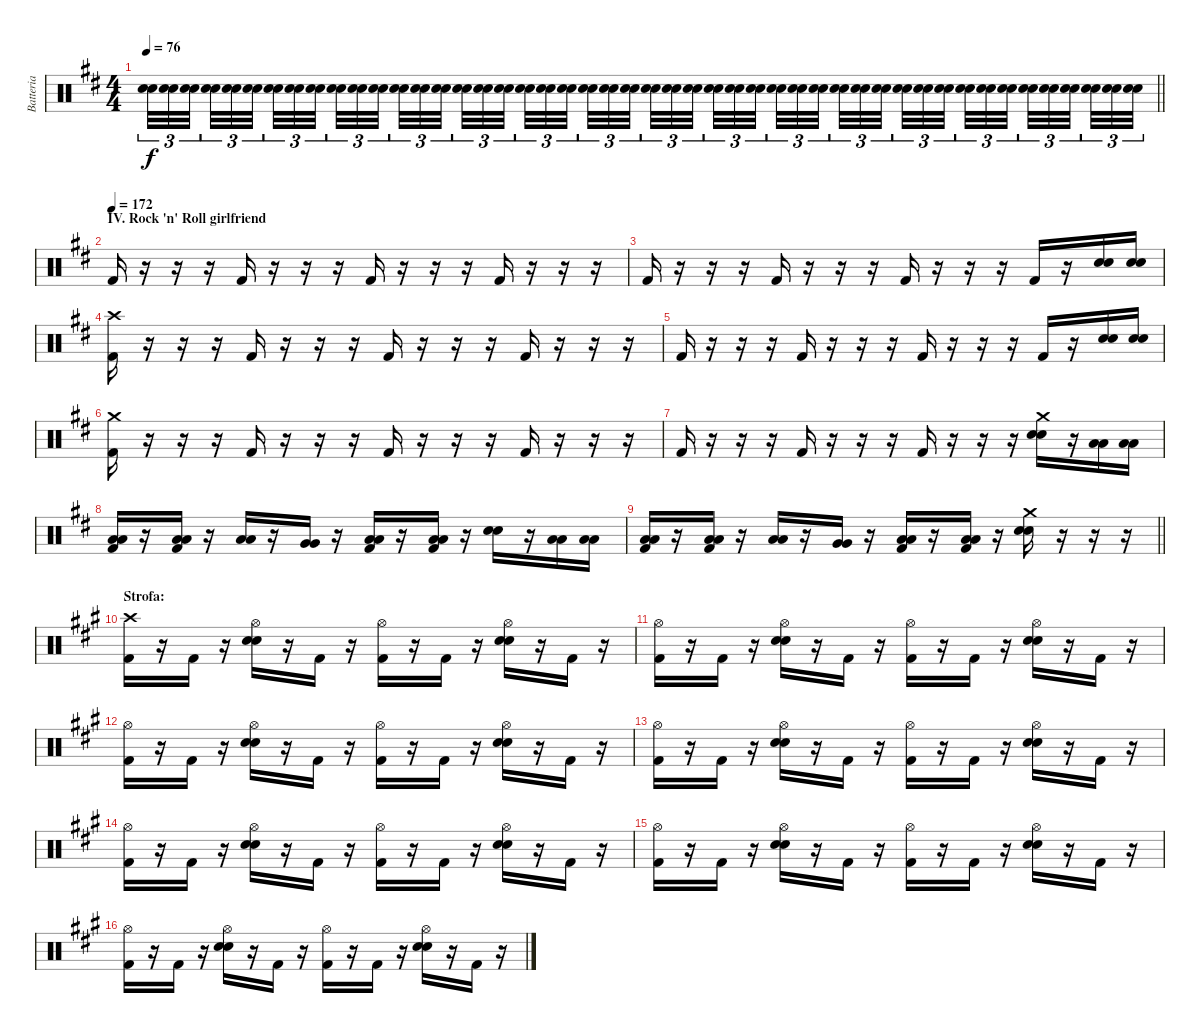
\track ("Batteria" "Batteria") {instrument percussion}
\staff {score}
\articulation defaults
\ts (4 4)
\tempo 76
\clef neutral
\barLineRight lightlight
\ks d
("Snare (hit) 2" "Snare (hit) 2").32{tu (3 2) dy f} ("Snare (hit) 2" "Snare (hit) 2").32{tu (3 2)} ("Snare (hit) 2" "Snare (hit) 2").32{tu (3 2) beam splitsecondary} ("Snare (hit) 2" "Snare (hit) 2").32{tu (3 2)} ("Snare (hit) 2" "Snare (hit) 2").32{tu (3 2)} ("Snare (hit) 2" "Snare (hit) 2").32{tu (3 2) beam splitsecondary} ("Snare (hit) 2" "Snare (hit) 2").32{tu (3 2)} ("Snare (hit) 2" "Snare (hit) 2").32{tu (3 2)} ("Snare (hit) 2" "Snare (hit) 2").32{tu (3 2) beam splitsecondary} ("Snare (hit) 2" "Snare (hit) 2").32{tu (3 2)} ("Snare (hit) 2" "Snare (hit) 2").32{tu (3 2)} ("Snare (hit) 2" "Snare (hit) 2").32{tu (3 2)} ("Snare (hit) 2" "Snare (hit) 2").32{tu (3 2)} ("Snare (hit) 2" "Snare (hit) 2").32{tu (3 2)} ("Snare (hit) 2" "Snare (hit) 2").32{tu (3 2) beam splitsecondary} ("Snare (hit) 2" "Snare (hit) 2").32{tu (3 2)} ("Snare (hit) 2" "Snare (hit) 2").32{tu (3 2)} ("Snare (hit) 2" "Snare (hit) 2").32{tu (3 2) beam splitsecondary} ("Snare (hit) 2" "Snare (hit) 2").32{tu (3 2)} ("Snare (hit) 2" "Snare (hit) 2").32{tu (3 2)} ("Snare (hit) 2" "Snare (hit) 2").32{tu (3 2) beam splitsecondary} ("Snare (hit) 2" "Snare (hit) 2").32{tu (3 2)} ("Snare (hit) 2" "Snare (hit) 2").32{tu (3 2)} ("Snare (hit) 2" "Snare (hit) 2").32{tu (3 2)} ("Snare (hit) 2" "Snare (hit) 2").32{tu (3 2)} ("Snare (hit) 2" "Snare (hit) 2").32{tu (3 2)} ("Snare (hit) 2" "Snare (hit) 2").32{tu (3 2) beam splitsecondary} ("Snare (hit) 2" "Snare (hit) 2").32{tu (3 2)} ("Snare (hit) 2" "Snare (hit) 2").32{tu (3 2)} ("Snare (hit) 2" "Snare (hit) 2").32{tu (3 2) beam splitsecondary} ("Snare (hit) 2" "Snare (hit) 2").32{tu (3 2)} ("Snare (hit) 2" "Snare (hit) 2").32{tu (3 2)} ("Snare (hit) 2" "Snare (hit) 2").32{tu (3 2) beam splitsecondary} ("Snare (hit) 2" "Snare (hit) 2").32{tu (3 2)} ("Snare (hit) 2" "Snare (hit) 2").32{tu (3 2)} ("Snare (hit) 2" "Snare (hit) 2").32{tu (3 2)} ("Snare (hit) 2" "Snare (hit) 2").32{tu (3 2)} ("Snare (hit) 2" "Snare (hit) 2").32{tu (3 2)} ("Snare (hit) 2" "Snare (hit) 2").32{tu (3 2) beam splitsecondary} ("Snare (hit) 2" "Snare (hit) 2").32{tu (3 2)} ("Snare (hit) 2" "Snare (hit) 2").32{tu (3 2)} ("Snare (hit) 2" "Snare (hit) 2").32{tu (3 2) beam splitsecondary} ("Snare (hit) 2" "Snare (hit) 2").32{tu (3 2)} ("Snare (hit) 2" "Snare (hit) 2").32{tu (3 2)} ("Snare (hit) 2" "Snare (hit) 2").32{tu (3 2) beam splitsecondary} ("Snare (hit) 2" "Snare (hit) 2").32{tu (3 2)} ("Snare (hit) 2" "Snare (hit) 2").32{tu (3 2)} ("Snare (hit) 2" "Snare (hit) 2").32{tu (3 2)} |
\section ("" "IV. Rock 'n' Roll girlfriend")
\tempo (172)
"Kick (hit) 2".16{volume 16} r.16 r.16 r.16 "Kick (hit) 2".16 r.16 r.16 r.16 "Kick (hit) 2".16 r.16 r.16 r.16 "Kick (hit) 2".16 r.16 r.16 r.16 |
"Kick (hit) 2".16 r.16 r.16 r.16 "Kick (hit) 2".16 r.16 r.16 r.16 "Kick (hit) 2".16 r.16 r.16 r.16 "Kick (hit) 2".16 r.16 ("Snare (hit) 2" "Snare (hit) 2").16 ("Snare (hit) 2" "Snare (hit) 2").16 |
("Kick (hit) 2" "Crash high (hit)").16 r.16 r.16 r.16 "Kick (hit) 2".16 r.16 r.16 r.16 "Kick (hit) 2".16 r.16 r.16 r.16 "Kick (hit) 2".16 r.16 r.16 r.16 |
"Kick (hit) 2".16 r.16 r.16 r.16 "Kick (hit) 2".16 r.16 r.16 r.16 "Kick (hit) 2".16 r.16 r.16 r.16 "Kick (hit) 2".16 r.16 ("Snare (hit) 2" "Snare (hit) 2").16 ("Snare (hit) 2" "Snare (hit) 2").16 |
("Kick (hit) 2" "Crash medium (hit)").16 r.16 r.16 r.16 "Kick (hit) 2".16 r.16 r.16 r.16 "Kick (hit) 2".16 r.16 r.16 r.16 "Kick (hit) 2".16 r.16 r.16 r.16 |
"Kick (hit) 2".16 r.16 r.16 r.16 "Kick (hit) 2".16 r.16 r.16 r.16 "Kick (hit) 2".16 r.16 r.16 r.16 ("Snare (hit) 2" "Snare (hit) 2" "Crash medium (hit)").16 r.16 ("Low Tom (hit)" "Low Tom (hit)").16 ("Low Tom (hit)" "Low Tom (hit)").16 |
("Kick (hit) 2" "Low Floor Tom (hit)" "Low Floor Tom (hit)").16 r.16 ("Kick (hit) 2" "Low Floor Tom (hit)" "Low Floor Tom (hit)").16 r.16 ("Low Tom (hit)" "Low Tom (hit)").16 r.16 ("Very Low Tom (hit)" "Very Low Tom (hit)").16 r.16 ("Kick (hit) 2" "Low Floor Tom (hit)" "Low Floor Tom (hit)").16 r.16 ("Kick (hit) 2" "Low Floor Tom (hit)" "Low Floor Tom (hit)").16 r.16 ("Snare (hit) 2" "Snare (hit) 2").16 r.16 ("Low Tom (hit)" "Low Tom (hit)").16 ("Low Tom (hit)" "Low Tom (hit)").16 |
\barLineRight lightlight
("Kick (hit) 2" "Low Floor Tom (hit)" "Low Floor Tom (hit)").16 r.16 ("Kick (hit) 2" "Low Floor Tom (hit)" "Low Floor Tom (hit)").16 r.16 ("Low Tom (hit)" "Low Tom (hit)").16 r.16 ("Very Low Tom (hit)" "Very Low Tom (hit)").16 r.16 ("Kick (hit) 2" "Low Floor Tom (hit)" "Low Floor Tom (hit)").16 r.16 ("Kick (hit) 2" "Low Floor Tom (hit)" "Low Floor Tom (hit)").16 r.16 ("Snare (hit) 2" "Snare (hit) 2" "Crash medium (hit)").16 r.16 r.16 r.16 |
\section ("" "Strofa:")
\ks a
("Kick (hit) 2" "Crash high (hit)").16 r.16 "Kick (hit) 2".16 r.16 ("Snare (hit) 2" "Snare (hit) 2" "Hi-Hat (open)").16 r.16 "Kick (hit) 2".16 r.16 ("Kick (hit) 2" "Hi-Hat (open)").16 r.16 "Kick (hit) 2".16 r.16 ("Snare (hit) 2" "Snare (hit) 2" "Hi-Hat (open)").16 r.16 "Kick (hit) 2".16 r.16 |
("Kick (hit) 2" "Hi-Hat (open)").16 r.16 "Kick (hit) 2".16 r.16 ("Snare (hit) 2" "Snare (hit) 2" "Hi-Hat (open)").16 r.16 "Kick (hit) 2".16 r.16 ("Kick (hit) 2" "Hi-Hat (open)").16 r.16 "Kick (hit) 2".16 r.16 ("Snare (hit) 2" "Snare (hit) 2" "Hi-Hat (open)").16 r.16 "Kick (hit) 2".16 r.16 |
("Kick (hit) 2" "Hi-Hat (open)").16 r.16 "Kick (hit) 2".16 r.16 ("Snare (hit) 2" "Snare (hit) 2" "Hi-Hat (open)").16 r.16 "Kick (hit) 2".16 r.16 ("Kick (hit) 2" "Hi-Hat (open)").16 r.16 "Kick (hit) 2".16 r.16 ("Snare (hit) 2" "Snare (hit) 2" "Hi-Hat (open)").16 r.16 "Kick (hit) 2".16 r.16 |
("Kick (hit) 2" "Hi-Hat (open)").16 r.16 "Kick (hit) 2".16 r.16 ("Snare (hit) 2" "Snare (hit) 2" "Hi-Hat (open)").16 r.16 "Kick (hit) 2".16 r.16 ("Kick (hit) 2" "Hi-Hat (open)").16 r.16 "Kick (hit) 2".16 r.16 ("Snare (hit) 2" "Snare (hit) 2" "Hi-Hat (open)").16 r.16 "Kick (hit) 2".16 r.16 |
("Kick (hit) 2" "Hi-Hat (open)").16 r.16 "Kick (hit) 2".16 r.16 ("Snare (hit) 2" "Snare (hit) 2" "Hi-Hat (open)").16 r.16 "Kick (hit) 2".16 r.16 ("Kick (hit) 2" "Hi-Hat (open)").16 r.16 "Kick (hit) 2".16 r.16 ("Snare (hit) 2" "Snare (hit) 2" "Hi-Hat (open)").16 r.16 "Kick (hit) 2".16 r.16 |
("Kick (hit) 2" "Hi-Hat (open)").16 r.16 "Kick (hit) 2".16 r.16 ("Snare (hit) 2" "Snare (hit) 2" "Hi-Hat (open)").16 r.16 "Kick (hit) 2".16 r.16 ("Kick (hit) 2" "Hi-Hat (open)").16 r.16 "Kick (hit) 2".16 r.16 ("Snare (hit) 2" "Snare (hit) 2" "Hi-Hat (open)").16 r.16 "Kick (hit) 2".16 r.16 |
("Kick (hit) 2" "Hi-Hat (open)").16 r.16 "Kick (hit) 2".16 r.16 ("Snare (hit) 2" "Snare (hit) 2" "Hi-Hat (open)").16 r.16 "Kick (hit) 2".16 r.16 ("Kick (hit) 2" "Hi-Hat (open)").16 r.16 "Kick (hit) 2".16 r.16 ("Snare (hit) 2" "Snare (hit) 2" "Hi-Hat (open)").16 r.16 "Kick (hit) 2".16 r.16
